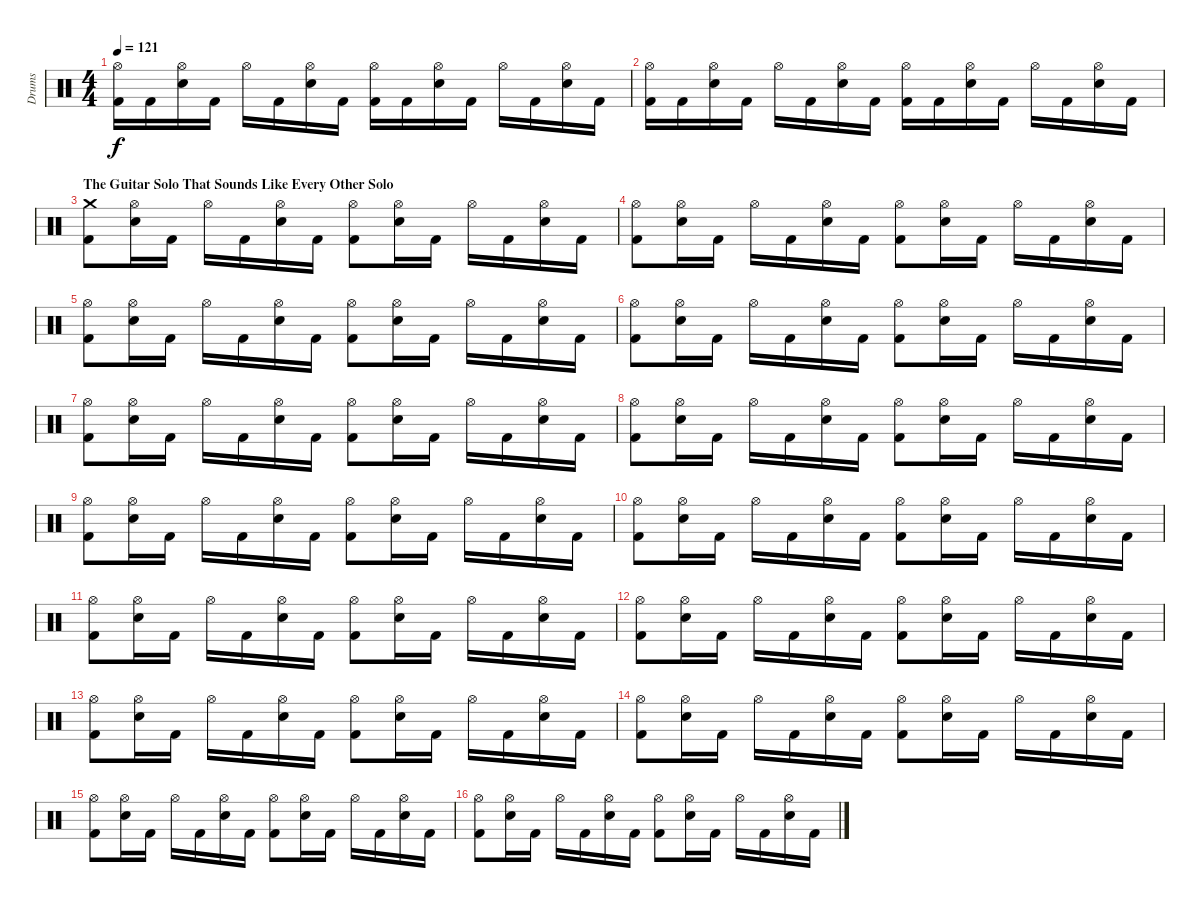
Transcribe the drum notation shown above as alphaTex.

\track ("Drums" "Drums") {instrument percussion}
\staff {score}
\articulation defaults
\ts (4 4)
\tempo 121
\clef neutral
\ks c
("Hi-Hat (open)" "Kick (hit) 2").16{dy f} "Kick (hit) 2".16 ("Hi-Hat (open)" "Electric Snare (hit)").16 "Kick (hit) 2".16 "Hi-Hat (open)".16 "Kick (hit) 2".16 ("Hi-Hat (open)" "Electric Snare (hit)").16 "Kick (hit) 2".16 ("Hi-Hat (open)" "Kick (hit) 2").16 "Kick (hit) 2".16 ("Hi-Hat (open)" "Electric Snare (hit)").16 "Kick (hit) 2".16 "Hi-Hat (open)".16 "Kick (hit) 2".16 ("Hi-Hat (open)" "Electric Snare (hit)").16 "Kick (hit) 2".16 |
("Hi-Hat (open)" "Kick (hit) 2").16 "Kick (hit) 2".16 ("Hi-Hat (open)" "Electric Snare (hit)").16 "Kick (hit) 2".16 "Hi-Hat (open)".16 "Kick (hit) 2".16 ("Hi-Hat (open)" "Electric Snare (hit)").16 "Kick (hit) 2".16 ("Hi-Hat (open)" "Kick (hit) 2").16 "Kick (hit) 2".16 ("Hi-Hat (open)" "Electric Snare (hit)").16 "Kick (hit) 2".16 "Hi-Hat (open)".16 "Kick (hit) 2".16 ("Hi-Hat (open)" "Electric Snare (hit)").16 "Kick (hit) 2".16 |
\section ("" "The Guitar Solo That Sounds Like Every Other Solo")
("Crash medium (hit)" "Kick (hit) 2").8 ("Hi-Hat (open)" "Electric Snare (hit)").16 "Kick (hit) 2".16 "Hi-Hat (open)".16 "Kick (hit) 2".16 ("Hi-Hat (open)" "Electric Snare (hit)").16 "Kick (hit) 2".16 ("Hi-Hat (open)" "Kick (hit) 2").8 ("Hi-Hat (open)" "Electric Snare (hit)").16 "Kick (hit) 2".16 "Hi-Hat (open)".16 "Kick (hit) 2".16 ("Hi-Hat (open)" "Electric Snare (hit)").16 "Kick (hit) 2".16 |
("Hi-Hat (open)" "Kick (hit) 2").8 ("Hi-Hat (open)" "Electric Snare (hit)").16 "Kick (hit) 2".16 "Hi-Hat (open)".16 "Kick (hit) 2".16 ("Hi-Hat (open)" "Electric Snare (hit)").16 "Kick (hit) 2".16 ("Hi-Hat (open)" "Kick (hit) 2").8 ("Hi-Hat (open)" "Electric Snare (hit)").16 "Kick (hit) 2".16 "Hi-Hat (open)".16 "Kick (hit) 2".16 ("Hi-Hat (open)" "Electric Snare (hit)").16 "Kick (hit) 2".16 |
("Hi-Hat (open)" "Kick (hit) 2").8 ("Hi-Hat (open)" "Electric Snare (hit)").16 "Kick (hit) 2".16 "Hi-Hat (open)".16 "Kick (hit) 2".16 ("Hi-Hat (open)" "Electric Snare (hit)").16 "Kick (hit) 2".16 ("Hi-Hat (open)" "Kick (hit) 2").8 ("Hi-Hat (open)" "Electric Snare (hit)").16 "Kick (hit) 2".16 "Hi-Hat (open)".16 "Kick (hit) 2".16 ("Hi-Hat (open)" "Electric Snare (hit)").16 "Kick (hit) 2".16 |
("Hi-Hat (open)" "Kick (hit) 2").8 ("Hi-Hat (open)" "Electric Snare (hit)").16 "Kick (hit) 2".16 "Hi-Hat (open)".16 "Kick (hit) 2".16 ("Hi-Hat (open)" "Electric Snare (hit)").16 "Kick (hit) 2".16 ("Hi-Hat (open)" "Kick (hit) 2").8 ("Hi-Hat (open)" "Electric Snare (hit)").16 "Kick (hit) 2".16 "Hi-Hat (open)".16 "Kick (hit) 2".16 ("Hi-Hat (open)" "Electric Snare (hit)").16 "Kick (hit) 2".16 |
("Hi-Hat (open)" "Kick (hit) 2").8 ("Hi-Hat (open)" "Electric Snare (hit)").16 "Kick (hit) 2".16 "Hi-Hat (open)".16 "Kick (hit) 2".16 ("Hi-Hat (open)" "Electric Snare (hit)").16 "Kick (hit) 2".16 ("Hi-Hat (open)" "Kick (hit) 2").8 ("Hi-Hat (open)" "Electric Snare (hit)").16 "Kick (hit) 2".16 "Hi-Hat (open)".16 "Kick (hit) 2".16 ("Hi-Hat (open)" "Electric Snare (hit)").16 "Kick (hit) 2".16 |
("Hi-Hat (open)" "Kick (hit) 2").8 ("Hi-Hat (open)" "Electric Snare (hit)").16 "Kick (hit) 2".16 "Hi-Hat (open)".16 "Kick (hit) 2".16 ("Hi-Hat (open)" "Electric Snare (hit)").16 "Kick (hit) 2".16 ("Hi-Hat (open)" "Kick (hit) 2").8 ("Hi-Hat (open)" "Electric Snare (hit)").16 "Kick (hit) 2".16 "Hi-Hat (open)".16 "Kick (hit) 2".16 ("Hi-Hat (open)" "Electric Snare (hit)").16 "Kick (hit) 2".16 |
("Hi-Hat (open)" "Kick (hit) 2").8 ("Hi-Hat (open)" "Electric Snare (hit)").16 "Kick (hit) 2".16 "Hi-Hat (open)".16 "Kick (hit) 2".16 ("Hi-Hat (open)" "Electric Snare (hit)").16 "Kick (hit) 2".16 ("Hi-Hat (open)" "Kick (hit) 2").8 ("Hi-Hat (open)" "Electric Snare (hit)").16 "Kick (hit) 2".16 "Hi-Hat (open)".16 "Kick (hit) 2".16 ("Hi-Hat (open)" "Electric Snare (hit)").16 "Kick (hit) 2".16 |
("Hi-Hat (open)" "Kick (hit) 2").8 ("Hi-Hat (open)" "Electric Snare (hit)").16 "Kick (hit) 2".16 "Hi-Hat (open)".16 "Kick (hit) 2".16 ("Hi-Hat (open)" "Electric Snare (hit)").16 "Kick (hit) 2".16 ("Hi-Hat (open)" "Kick (hit) 2").8 ("Hi-Hat (open)" "Electric Snare (hit)").16 "Kick (hit) 2".16 "Hi-Hat (open)".16 "Kick (hit) 2".16 ("Hi-Hat (open)" "Electric Snare (hit)").16 "Kick (hit) 2".16 |
("Hi-Hat (open)" "Kick (hit) 2").8 ("Hi-Hat (open)" "Electric Snare (hit)").16 "Kick (hit) 2".16 "Hi-Hat (open)".16 "Kick (hit) 2".16 ("Hi-Hat (open)" "Electric Snare (hit)").16 "Kick (hit) 2".16 ("Hi-Hat (open)" "Kick (hit) 2").8 ("Hi-Hat (open)" "Electric Snare (hit)").16 "Kick (hit) 2".16 "Hi-Hat (open)".16 "Kick (hit) 2".16 ("Hi-Hat (open)" "Electric Snare (hit)").16 "Kick (hit) 2".16 |
("Hi-Hat (open)" "Kick (hit) 2").8 ("Hi-Hat (open)" "Electric Snare (hit)").16 "Kick (hit) 2".16 "Hi-Hat (open)".16 "Kick (hit) 2".16 ("Hi-Hat (open)" "Electric Snare (hit)").16 "Kick (hit) 2".16 ("Hi-Hat (open)" "Kick (hit) 2").8 ("Hi-Hat (open)" "Electric Snare (hit)").16 "Kick (hit) 2".16 "Hi-Hat (open)".16 "Kick (hit) 2".16 ("Hi-Hat (open)" "Electric Snare (hit)").16 "Kick (hit) 2".16 |
("Hi-Hat (open)" "Kick (hit) 2").8 ("Hi-Hat (open)" "Electric Snare (hit)").16 "Kick (hit) 2".16 "Hi-Hat (open)".16 "Kick (hit) 2".16 ("Hi-Hat (open)" "Electric Snare (hit)").16 "Kick (hit) 2".16 ("Hi-Hat (open)" "Kick (hit) 2").8 ("Hi-Hat (open)" "Electric Snare (hit)").16 "Kick (hit) 2".16 "Hi-Hat (open)".16 "Kick (hit) 2".16 ("Hi-Hat (open)" "Electric Snare (hit)").16 "Kick (hit) 2".16 |
("Hi-Hat (open)" "Kick (hit) 2").8 ("Hi-Hat (open)" "Electric Snare (hit)").16 "Kick (hit) 2".16 "Hi-Hat (open)".16 "Kick (hit) 2".16 ("Hi-Hat (open)" "Electric Snare (hit)").16 "Kick (hit) 2".16 ("Hi-Hat (open)" "Kick (hit) 2").8 ("Hi-Hat (open)" "Electric Snare (hit)").16 "Kick (hit) 2".16 "Hi-Hat (open)".16 "Kick (hit) 2".16 ("Hi-Hat (open)" "Electric Snare (hit)").16 "Kick (hit) 2".16 |
("Hi-Hat (open)" "Kick (hit) 2").8 ("Hi-Hat (open)" "Electric Snare (hit)").16 "Kick (hit) 2".16 "Hi-Hat (open)".16 "Kick (hit) 2".16 ("Hi-Hat (open)" "Electric Snare (hit)").16 "Kick (hit) 2".16 ("Hi-Hat (open)" "Kick (hit) 2").8 ("Hi-Hat (open)" "Electric Snare (hit)").16 "Kick (hit) 2".16 "Hi-Hat (open)".16 "Kick (hit) 2".16 ("Hi-Hat (open)" "Electric Snare (hit)").16 "Kick (hit) 2".16 |
("Hi-Hat (open)" "Kick (hit) 2").8 ("Hi-Hat (open)" "Electric Snare (hit)").16 "Kick (hit) 2".16 "Hi-Hat (open)".16 "Kick (hit) 2".16 ("Hi-Hat (open)" "Electric Snare (hit)").16 "Kick (hit) 2".16 ("Hi-Hat (open)" "Kick (hit) 2").8 ("Hi-Hat (open)" "Electric Snare (hit)").16 "Kick (hit) 2".16 "Hi-Hat (open)".16 "Kick (hit) 2".16 ("Hi-Hat (open)" "Electric Snare (hit)").16 "Kick (hit) 2".16
